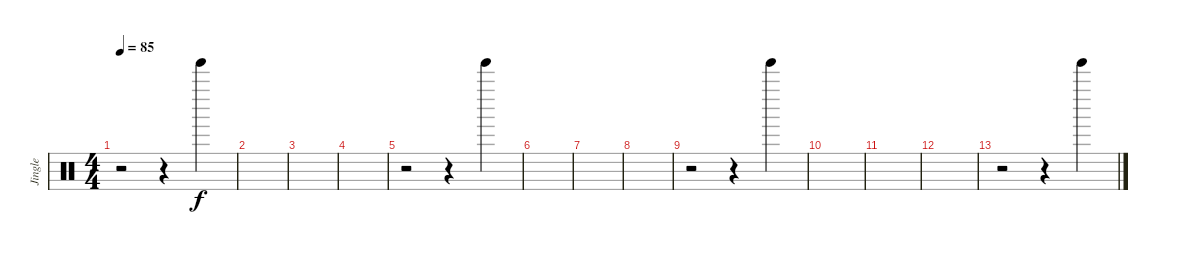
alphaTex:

\track ("Jingle" "Jingle") {instrument percussion}
\staff {score}
\articulation defaults
\ts (4 4)
\tempo 85
\clef neutral
\ks c
r.2{dy f} r.4 "Tinkle Bell (hit)".4 |
|
|
|
r.2 r.4 "Tinkle Bell (hit)".4 |
|
|
|
r.2 r.4 "Tinkle Bell (hit)".4 |
|
|
|
r.2 r.4 "Tinkle Bell (hit)".4
